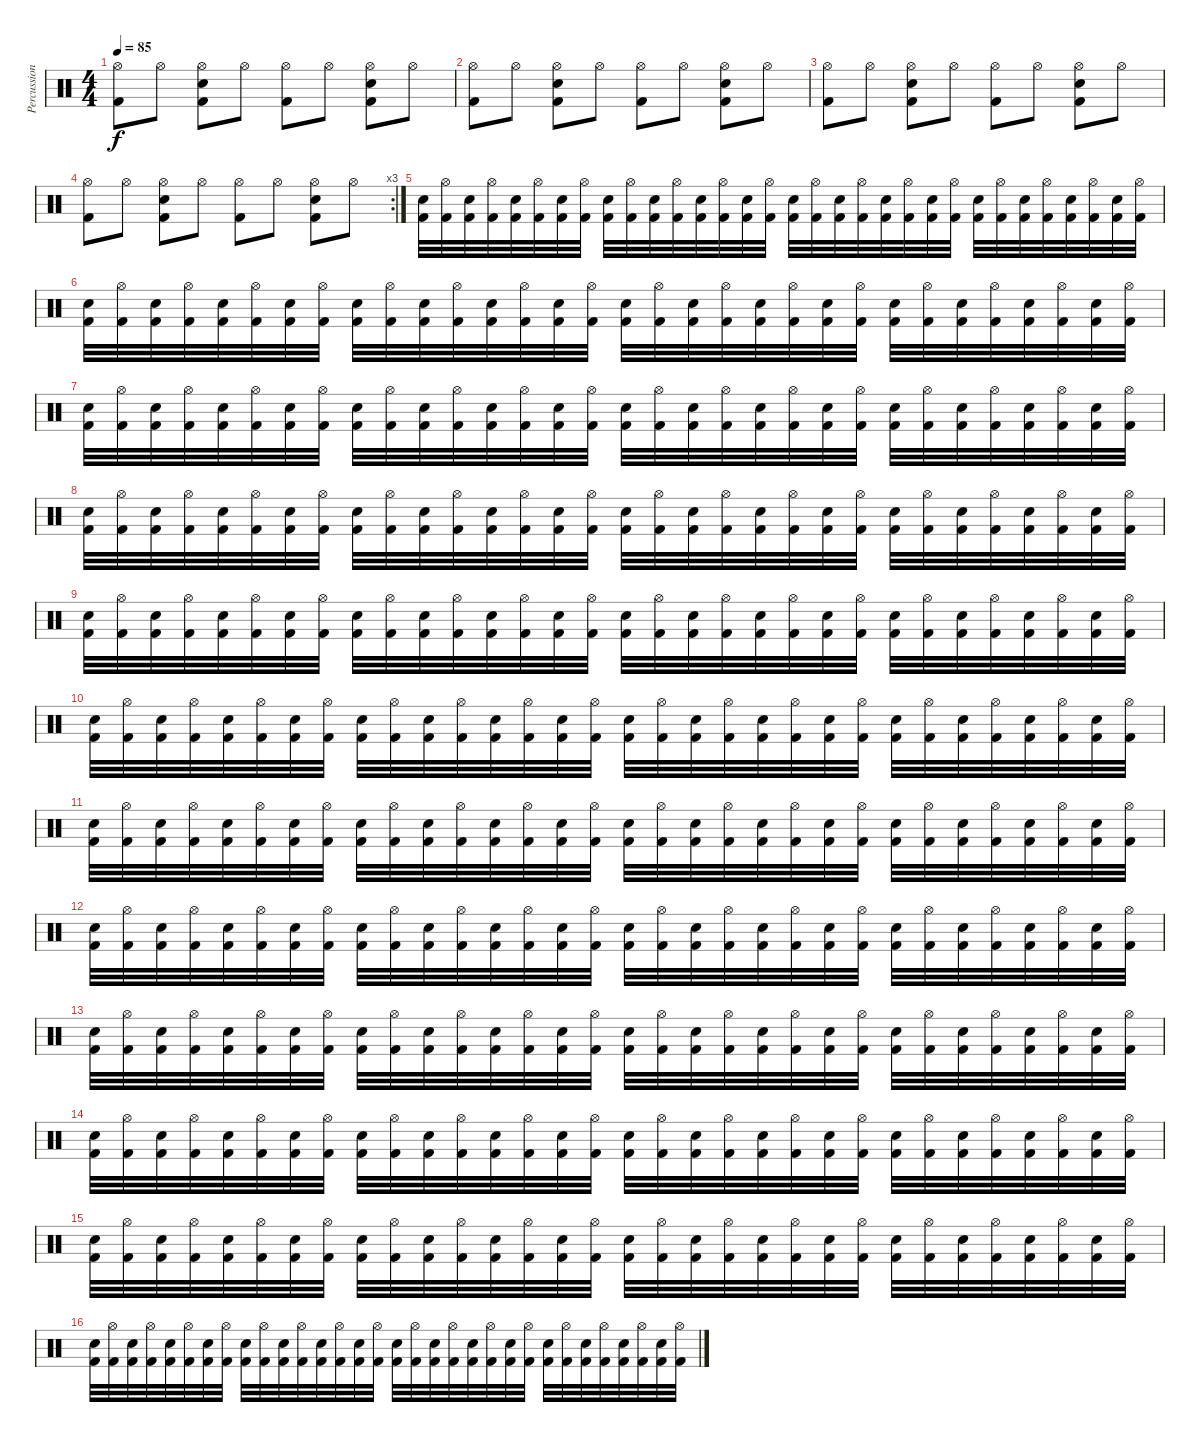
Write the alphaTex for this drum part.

\track ("Percussion" "Percussion") {instrument percussion}
\staff {score}
\articulation defaults
\ts (4 4)
\tempo 85
\clef neutral
\ks c
("Hi-Hat (open)" "Kick (hit) 2").8{dy f} "Hi-Hat (open)".8 ("Hi-Hat (open)" "Electric Snare (hit)" "Kick (hit) 2").8 "Hi-Hat (open)".8 ("Hi-Hat (open)" "Kick (hit) 2").8 "Hi-Hat (open)".8 ("Hi-Hat (open)" "Electric Snare (hit)" "Kick (hit) 2").8 "Hi-Hat (open)".8 |
("Hi-Hat (open)" "Kick (hit) 2").8 "Hi-Hat (open)".8 ("Hi-Hat (open)" "Electric Snare (hit)" "Kick (hit) 2").8 "Hi-Hat (open)".8 ("Hi-Hat (open)" "Kick (hit) 2").8 "Hi-Hat (open)".8 ("Hi-Hat (open)" "Electric Snare (hit)" "Kick (hit) 2").8 "Hi-Hat (open)".8 |
("Hi-Hat (open)" "Kick (hit) 2").8 "Hi-Hat (open)".8 ("Hi-Hat (open)" "Electric Snare (hit)" "Kick (hit) 2").8 "Hi-Hat (open)".8 ("Hi-Hat (open)" "Kick (hit) 2").8 "Hi-Hat (open)".8 ("Hi-Hat (open)" "Electric Snare (hit)" "Kick (hit) 2").8 "Hi-Hat (open)".8 |
\rc 3
("Hi-Hat (open)" "Kick (hit) 2").8 "Hi-Hat (open)".8 ("Hi-Hat (open)" "Electric Snare (hit)" "Kick (hit) 2").8 "Hi-Hat (open)".8 ("Hi-Hat (open)" "Kick (hit) 2").8 "Hi-Hat (open)".8 ("Hi-Hat (open)" "Electric Snare (hit)" "Kick (hit) 2").8 "Hi-Hat (open)".8 |
("Electric Snare (hit)" "Kick (hit) 2").32 ("Hi-Hat (open)" "Kick (hit) 2").32 ("Electric Snare (hit)" "Kick (hit) 2").32 ("Hi-Hat (open)" "Kick (hit) 2").32 ("Electric Snare (hit)" "Kick (hit) 2").32 ("Hi-Hat (open)" "Kick (hit) 2").32 ("Electric Snare (hit)" "Kick (hit) 2").32 ("Hi-Hat (open)" "Kick (hit) 2").32 ("Electric Snare (hit)" "Kick (hit) 2").32 ("Hi-Hat (open)" "Kick (hit) 2").32 ("Electric Snare (hit)" "Kick (hit) 2").32 ("Hi-Hat (open)" "Kick (hit) 2").32 ("Electric Snare (hit)" "Kick (hit) 2").32 ("Hi-Hat (open)" "Kick (hit) 2").32 ("Electric Snare (hit)" "Kick (hit) 2").32 ("Hi-Hat (open)" "Kick (hit) 2").32 ("Electric Snare (hit)" "Kick (hit) 2").32 ("Hi-Hat (open)" "Kick (hit) 2").32 ("Electric Snare (hit)" "Kick (hit) 2").32 ("Hi-Hat (open)" "Kick (hit) 2").32 ("Electric Snare (hit)" "Kick (hit) 2").32 ("Hi-Hat (open)" "Kick (hit) 2").32 ("Electric Snare (hit)" "Kick (hit) 2").32 ("Hi-Hat (open)" "Kick (hit) 2").32 ("Electric Snare (hit)" "Kick (hit) 2").32 ("Hi-Hat (open)" "Kick (hit) 2").32 ("Electric Snare (hit)" "Kick (hit) 2").32 ("Hi-Hat (open)" "Kick (hit) 2").32 ("Electric Snare (hit)" "Kick (hit) 2").32 ("Hi-Hat (open)" "Kick (hit) 2").32 ("Electric Snare (hit)" "Kick (hit) 2").32 ("Hi-Hat (open)" "Kick (hit) 2").32 |
("Electric Snare (hit)" "Kick (hit) 2").32 ("Hi-Hat (open)" "Kick (hit) 2").32 ("Electric Snare (hit)" "Kick (hit) 2").32 ("Hi-Hat (open)" "Kick (hit) 2").32 ("Electric Snare (hit)" "Kick (hit) 2").32 ("Hi-Hat (open)" "Kick (hit) 2").32 ("Electric Snare (hit)" "Kick (hit) 2").32 ("Hi-Hat (open)" "Kick (hit) 2").32 ("Electric Snare (hit)" "Kick (hit) 2").32 ("Hi-Hat (open)" "Kick (hit) 2").32 ("Electric Snare (hit)" "Kick (hit) 2").32 ("Hi-Hat (open)" "Kick (hit) 2").32 ("Electric Snare (hit)" "Kick (hit) 2").32 ("Hi-Hat (open)" "Kick (hit) 2").32 ("Electric Snare (hit)" "Kick (hit) 2").32 ("Hi-Hat (open)" "Kick (hit) 2").32 ("Electric Snare (hit)" "Kick (hit) 2").32 ("Hi-Hat (open)" "Kick (hit) 2").32 ("Electric Snare (hit)" "Kick (hit) 2").32 ("Hi-Hat (open)" "Kick (hit) 2").32 ("Electric Snare (hit)" "Kick (hit) 2").32 ("Hi-Hat (open)" "Kick (hit) 2").32 ("Electric Snare (hit)" "Kick (hit) 2").32 ("Hi-Hat (open)" "Kick (hit) 2").32 ("Electric Snare (hit)" "Kick (hit) 2").32 ("Hi-Hat (open)" "Kick (hit) 2").32 ("Electric Snare (hit)" "Kick (hit) 2").32 ("Hi-Hat (open)" "Kick (hit) 2").32 ("Electric Snare (hit)" "Kick (hit) 2").32 ("Hi-Hat (open)" "Kick (hit) 2").32 ("Electric Snare (hit)" "Kick (hit) 2").32 ("Hi-Hat (open)" "Kick (hit) 2").32 |
("Electric Snare (hit)" "Kick (hit) 2").32 ("Hi-Hat (open)" "Kick (hit) 2").32 ("Electric Snare (hit)" "Kick (hit) 2").32 ("Hi-Hat (open)" "Kick (hit) 2").32 ("Electric Snare (hit)" "Kick (hit) 2").32 ("Hi-Hat (open)" "Kick (hit) 2").32 ("Electric Snare (hit)" "Kick (hit) 2").32 ("Hi-Hat (open)" "Kick (hit) 2").32 ("Electric Snare (hit)" "Kick (hit) 2").32 ("Hi-Hat (open)" "Kick (hit) 2").32 ("Electric Snare (hit)" "Kick (hit) 2").32 ("Hi-Hat (open)" "Kick (hit) 2").32 ("Electric Snare (hit)" "Kick (hit) 2").32 ("Hi-Hat (open)" "Kick (hit) 2").32 ("Electric Snare (hit)" "Kick (hit) 2").32 ("Hi-Hat (open)" "Kick (hit) 2").32 ("Electric Snare (hit)" "Kick (hit) 2").32 ("Hi-Hat (open)" "Kick (hit) 2").32 ("Electric Snare (hit)" "Kick (hit) 2").32 ("Hi-Hat (open)" "Kick (hit) 2").32 ("Electric Snare (hit)" "Kick (hit) 2").32 ("Hi-Hat (open)" "Kick (hit) 2").32 ("Electric Snare (hit)" "Kick (hit) 2").32 ("Hi-Hat (open)" "Kick (hit) 2").32 ("Electric Snare (hit)" "Kick (hit) 2").32 ("Hi-Hat (open)" "Kick (hit) 2").32 ("Electric Snare (hit)" "Kick (hit) 2").32 ("Hi-Hat (open)" "Kick (hit) 2").32 ("Electric Snare (hit)" "Kick (hit) 2").32 ("Hi-Hat (open)" "Kick (hit) 2").32 ("Electric Snare (hit)" "Kick (hit) 2").32 ("Hi-Hat (open)" "Kick (hit) 2").32 |
("Electric Snare (hit)" "Kick (hit) 2").32 ("Hi-Hat (open)" "Kick (hit) 2").32 ("Electric Snare (hit)" "Kick (hit) 2").32 ("Hi-Hat (open)" "Kick (hit) 2").32 ("Electric Snare (hit)" "Kick (hit) 2").32 ("Hi-Hat (open)" "Kick (hit) 2").32 ("Electric Snare (hit)" "Kick (hit) 2").32 ("Hi-Hat (open)" "Kick (hit) 2").32 ("Electric Snare (hit)" "Kick (hit) 2").32 ("Hi-Hat (open)" "Kick (hit) 2").32 ("Electric Snare (hit)" "Kick (hit) 2").32 ("Hi-Hat (open)" "Kick (hit) 2").32 ("Electric Snare (hit)" "Kick (hit) 2").32 ("Hi-Hat (open)" "Kick (hit) 2").32 ("Electric Snare (hit)" "Kick (hit) 2").32 ("Hi-Hat (open)" "Kick (hit) 2").32 ("Electric Snare (hit)" "Kick (hit) 2").32 ("Hi-Hat (open)" "Kick (hit) 2").32 ("Electric Snare (hit)" "Kick (hit) 2").32 ("Hi-Hat (open)" "Kick (hit) 2").32 ("Electric Snare (hit)" "Kick (hit) 2").32 ("Hi-Hat (open)" "Kick (hit) 2").32 ("Electric Snare (hit)" "Kick (hit) 2").32 ("Hi-Hat (open)" "Kick (hit) 2").32 ("Electric Snare (hit)" "Kick (hit) 2").32 ("Hi-Hat (open)" "Kick (hit) 2").32 ("Electric Snare (hit)" "Kick (hit) 2").32 ("Hi-Hat (open)" "Kick (hit) 2").32 ("Electric Snare (hit)" "Kick (hit) 2").32 ("Hi-Hat (open)" "Kick (hit) 2").32 ("Electric Snare (hit)" "Kick (hit) 2").32 ("Hi-Hat (open)" "Kick (hit) 2").32 |
("Electric Snare (hit)" "Kick (hit) 2").32 ("Hi-Hat (open)" "Kick (hit) 2").32 ("Electric Snare (hit)" "Kick (hit) 2").32 ("Hi-Hat (open)" "Kick (hit) 2").32 ("Electric Snare (hit)" "Kick (hit) 2").32 ("Hi-Hat (open)" "Kick (hit) 2").32 ("Electric Snare (hit)" "Kick (hit) 2").32 ("Hi-Hat (open)" "Kick (hit) 2").32 ("Electric Snare (hit)" "Kick (hit) 2").32 ("Hi-Hat (open)" "Kick (hit) 2").32 ("Electric Snare (hit)" "Kick (hit) 2").32 ("Hi-Hat (open)" "Kick (hit) 2").32 ("Electric Snare (hit)" "Kick (hit) 2").32 ("Hi-Hat (open)" "Kick (hit) 2").32 ("Electric Snare (hit)" "Kick (hit) 2").32 ("Hi-Hat (open)" "Kick (hit) 2").32 ("Electric Snare (hit)" "Kick (hit) 2").32 ("Hi-Hat (open)" "Kick (hit) 2").32 ("Electric Snare (hit)" "Kick (hit) 2").32 ("Hi-Hat (open)" "Kick (hit) 2").32 ("Electric Snare (hit)" "Kick (hit) 2").32 ("Hi-Hat (open)" "Kick (hit) 2").32 ("Electric Snare (hit)" "Kick (hit) 2").32 ("Hi-Hat (open)" "Kick (hit) 2").32 ("Electric Snare (hit)" "Kick (hit) 2").32 ("Hi-Hat (open)" "Kick (hit) 2").32 ("Electric Snare (hit)" "Kick (hit) 2").32 ("Hi-Hat (open)" "Kick (hit) 2").32 ("Electric Snare (hit)" "Kick (hit) 2").32 ("Hi-Hat (open)" "Kick (hit) 2").32 ("Electric Snare (hit)" "Kick (hit) 2").32 ("Hi-Hat (open)" "Kick (hit) 2").32 |
("Electric Snare (hit)" "Kick (hit) 2").32 ("Hi-Hat (open)" "Kick (hit) 2").32 ("Electric Snare (hit)" "Kick (hit) 2").32 ("Hi-Hat (open)" "Kick (hit) 2").32 ("Electric Snare (hit)" "Kick (hit) 2").32 ("Hi-Hat (open)" "Kick (hit) 2").32 ("Electric Snare (hit)" "Kick (hit) 2").32 ("Hi-Hat (open)" "Kick (hit) 2").32 ("Electric Snare (hit)" "Kick (hit) 2").32 ("Hi-Hat (open)" "Kick (hit) 2").32 ("Electric Snare (hit)" "Kick (hit) 2").32 ("Hi-Hat (open)" "Kick (hit) 2").32 ("Electric Snare (hit)" "Kick (hit) 2").32 ("Hi-Hat (open)" "Kick (hit) 2").32 ("Electric Snare (hit)" "Kick (hit) 2").32 ("Hi-Hat (open)" "Kick (hit) 2").32 ("Electric Snare (hit)" "Kick (hit) 2").32 ("Hi-Hat (open)" "Kick (hit) 2").32 ("Electric Snare (hit)" "Kick (hit) 2").32 ("Hi-Hat (open)" "Kick (hit) 2").32 ("Electric Snare (hit)" "Kick (hit) 2").32 ("Hi-Hat (open)" "Kick (hit) 2").32 ("Electric Snare (hit)" "Kick (hit) 2").32 ("Hi-Hat (open)" "Kick (hit) 2").32 ("Electric Snare (hit)" "Kick (hit) 2").32 ("Hi-Hat (open)" "Kick (hit) 2").32 ("Electric Snare (hit)" "Kick (hit) 2").32 ("Hi-Hat (open)" "Kick (hit) 2").32 ("Electric Snare (hit)" "Kick (hit) 2").32 ("Hi-Hat (open)" "Kick (hit) 2").32 ("Electric Snare (hit)" "Kick (hit) 2").32 ("Hi-Hat (open)" "Kick (hit) 2").32 |
("Electric Snare (hit)" "Kick (hit) 2").32 ("Hi-Hat (open)" "Kick (hit) 2").32 ("Electric Snare (hit)" "Kick (hit) 2").32 ("Hi-Hat (open)" "Kick (hit) 2").32 ("Electric Snare (hit)" "Kick (hit) 2").32 ("Hi-Hat (open)" "Kick (hit) 2").32 ("Electric Snare (hit)" "Kick (hit) 2").32 ("Hi-Hat (open)" "Kick (hit) 2").32 ("Electric Snare (hit)" "Kick (hit) 2").32 ("Hi-Hat (open)" "Kick (hit) 2").32 ("Electric Snare (hit)" "Kick (hit) 2").32 ("Hi-Hat (open)" "Kick (hit) 2").32 ("Electric Snare (hit)" "Kick (hit) 2").32 ("Hi-Hat (open)" "Kick (hit) 2").32 ("Electric Snare (hit)" "Kick (hit) 2").32 ("Hi-Hat (open)" "Kick (hit) 2").32 ("Electric Snare (hit)" "Kick (hit) 2").32 ("Hi-Hat (open)" "Kick (hit) 2").32 ("Electric Snare (hit)" "Kick (hit) 2").32 ("Hi-Hat (open)" "Kick (hit) 2").32 ("Electric Snare (hit)" "Kick (hit) 2").32 ("Hi-Hat (open)" "Kick (hit) 2").32 ("Electric Snare (hit)" "Kick (hit) 2").32 ("Hi-Hat (open)" "Kick (hit) 2").32 ("Electric Snare (hit)" "Kick (hit) 2").32 ("Hi-Hat (open)" "Kick (hit) 2").32 ("Electric Snare (hit)" "Kick (hit) 2").32 ("Hi-Hat (open)" "Kick (hit) 2").32 ("Electric Snare (hit)" "Kick (hit) 2").32 ("Hi-Hat (open)" "Kick (hit) 2").32 ("Electric Snare (hit)" "Kick (hit) 2").32 ("Hi-Hat (open)" "Kick (hit) 2").32 |
("Electric Snare (hit)" "Kick (hit) 2").32 ("Hi-Hat (open)" "Kick (hit) 2").32 ("Electric Snare (hit)" "Kick (hit) 2").32 ("Hi-Hat (open)" "Kick (hit) 2").32 ("Electric Snare (hit)" "Kick (hit) 2").32 ("Hi-Hat (open)" "Kick (hit) 2").32 ("Electric Snare (hit)" "Kick (hit) 2").32 ("Hi-Hat (open)" "Kick (hit) 2").32 ("Electric Snare (hit)" "Kick (hit) 2").32 ("Hi-Hat (open)" "Kick (hit) 2").32 ("Electric Snare (hit)" "Kick (hit) 2").32 ("Hi-Hat (open)" "Kick (hit) 2").32 ("Electric Snare (hit)" "Kick (hit) 2").32 ("Hi-Hat (open)" "Kick (hit) 2").32 ("Electric Snare (hit)" "Kick (hit) 2").32 ("Hi-Hat (open)" "Kick (hit) 2").32 ("Electric Snare (hit)" "Kick (hit) 2").32 ("Hi-Hat (open)" "Kick (hit) 2").32 ("Electric Snare (hit)" "Kick (hit) 2").32 ("Hi-Hat (open)" "Kick (hit) 2").32 ("Electric Snare (hit)" "Kick (hit) 2").32 ("Hi-Hat (open)" "Kick (hit) 2").32 ("Electric Snare (hit)" "Kick (hit) 2").32 ("Hi-Hat (open)" "Kick (hit) 2").32 ("Electric Snare (hit)" "Kick (hit) 2").32 ("Hi-Hat (open)" "Kick (hit) 2").32 ("Electric Snare (hit)" "Kick (hit) 2").32 ("Hi-Hat (open)" "Kick (hit) 2").32 ("Electric Snare (hit)" "Kick (hit) 2").32 ("Hi-Hat (open)" "Kick (hit) 2").32 ("Electric Snare (hit)" "Kick (hit) 2").32 ("Hi-Hat (open)" "Kick (hit) 2").32 |
("Electric Snare (hit)" "Kick (hit) 2").32 ("Hi-Hat (open)" "Kick (hit) 2").32 ("Electric Snare (hit)" "Kick (hit) 2").32 ("Hi-Hat (open)" "Kick (hit) 2").32 ("Electric Snare (hit)" "Kick (hit) 2").32 ("Hi-Hat (open)" "Kick (hit) 2").32 ("Electric Snare (hit)" "Kick (hit) 2").32 ("Hi-Hat (open)" "Kick (hit) 2").32 ("Electric Snare (hit)" "Kick (hit) 2").32 ("Hi-Hat (open)" "Kick (hit) 2").32 ("Electric Snare (hit)" "Kick (hit) 2").32 ("Hi-Hat (open)" "Kick (hit) 2").32 ("Electric Snare (hit)" "Kick (hit) 2").32 ("Hi-Hat (open)" "Kick (hit) 2").32 ("Electric Snare (hit)" "Kick (hit) 2").32 ("Hi-Hat (open)" "Kick (hit) 2").32 ("Electric Snare (hit)" "Kick (hit) 2").32 ("Hi-Hat (open)" "Kick (hit) 2").32 ("Electric Snare (hit)" "Kick (hit) 2").32 ("Hi-Hat (open)" "Kick (hit) 2").32 ("Electric Snare (hit)" "Kick (hit) 2").32 ("Hi-Hat (open)" "Kick (hit) 2").32 ("Electric Snare (hit)" "Kick (hit) 2").32 ("Hi-Hat (open)" "Kick (hit) 2").32 ("Electric Snare (hit)" "Kick (hit) 2").32 ("Hi-Hat (open)" "Kick (hit) 2").32 ("Electric Snare (hit)" "Kick (hit) 2").32 ("Hi-Hat (open)" "Kick (hit) 2").32 ("Electric Snare (hit)" "Kick (hit) 2").32 ("Hi-Hat (open)" "Kick (hit) 2").32 ("Electric Snare (hit)" "Kick (hit) 2").32 ("Hi-Hat (open)" "Kick (hit) 2").32 |
("Electric Snare (hit)" "Kick (hit) 2").32 ("Hi-Hat (open)" "Kick (hit) 2").32 ("Electric Snare (hit)" "Kick (hit) 2").32 ("Hi-Hat (open)" "Kick (hit) 2").32 ("Electric Snare (hit)" "Kick (hit) 2").32 ("Hi-Hat (open)" "Kick (hit) 2").32 ("Electric Snare (hit)" "Kick (hit) 2").32 ("Hi-Hat (open)" "Kick (hit) 2").32 ("Electric Snare (hit)" "Kick (hit) 2").32 ("Hi-Hat (open)" "Kick (hit) 2").32 ("Electric Snare (hit)" "Kick (hit) 2").32 ("Hi-Hat (open)" "Kick (hit) 2").32 ("Electric Snare (hit)" "Kick (hit) 2").32 ("Hi-Hat (open)" "Kick (hit) 2").32 ("Electric Snare (hit)" "Kick (hit) 2").32 ("Hi-Hat (open)" "Kick (hit) 2").32 ("Electric Snare (hit)" "Kick (hit) 2").32 ("Hi-Hat (open)" "Kick (hit) 2").32 ("Electric Snare (hit)" "Kick (hit) 2").32 ("Hi-Hat (open)" "Kick (hit) 2").32 ("Electric Snare (hit)" "Kick (hit) 2").32 ("Hi-Hat (open)" "Kick (hit) 2").32 ("Electric Snare (hit)" "Kick (hit) 2").32 ("Hi-Hat (open)" "Kick (hit) 2").32 ("Electric Snare (hit)" "Kick (hit) 2").32 ("Hi-Hat (open)" "Kick (hit) 2").32 ("Electric Snare (hit)" "Kick (hit) 2").32 ("Hi-Hat (open)" "Kick (hit) 2").32 ("Electric Snare (hit)" "Kick (hit) 2").32 ("Hi-Hat (open)" "Kick (hit) 2").32 ("Electric Snare (hit)" "Kick (hit) 2").32 ("Hi-Hat (open)" "Kick (hit) 2").32 |
("Electric Snare (hit)" "Kick (hit) 2").32 ("Hi-Hat (open)" "Kick (hit) 2").32 ("Electric Snare (hit)" "Kick (hit) 2").32 ("Hi-Hat (open)" "Kick (hit) 2").32 ("Electric Snare (hit)" "Kick (hit) 2").32 ("Hi-Hat (open)" "Kick (hit) 2").32 ("Electric Snare (hit)" "Kick (hit) 2").32 ("Hi-Hat (open)" "Kick (hit) 2").32 ("Electric Snare (hit)" "Kick (hit) 2").32 ("Hi-Hat (open)" "Kick (hit) 2").32 ("Electric Snare (hit)" "Kick (hit) 2").32 ("Hi-Hat (open)" "Kick (hit) 2").32 ("Electric Snare (hit)" "Kick (hit) 2").32 ("Hi-Hat (open)" "Kick (hit) 2").32 ("Electric Snare (hit)" "Kick (hit) 2").32 ("Hi-Hat (open)" "Kick (hit) 2").32 ("Electric Snare (hit)" "Kick (hit) 2").32 ("Hi-Hat (open)" "Kick (hit) 2").32 ("Electric Snare (hit)" "Kick (hit) 2").32 ("Hi-Hat (open)" "Kick (hit) 2").32 ("Electric Snare (hit)" "Kick (hit) 2").32 ("Hi-Hat (open)" "Kick (hit) 2").32 ("Electric Snare (hit)" "Kick (hit) 2").32 ("Hi-Hat (open)" "Kick (hit) 2").32 ("Electric Snare (hit)" "Kick (hit) 2").32 ("Hi-Hat (open)" "Kick (hit) 2").32 ("Electric Snare (hit)" "Kick (hit) 2").32 ("Hi-Hat (open)" "Kick (hit) 2").32 ("Electric Snare (hit)" "Kick (hit) 2").32 ("Hi-Hat (open)" "Kick (hit) 2").32 ("Electric Snare (hit)" "Kick (hit) 2").32 ("Hi-Hat (open)" "Kick (hit) 2").32 |
("Electric Snare (hit)" "Kick (hit) 2").32 ("Hi-Hat (open)" "Kick (hit) 2").32 ("Electric Snare (hit)" "Kick (hit) 2").32 ("Hi-Hat (open)" "Kick (hit) 2").32 ("Electric Snare (hit)" "Kick (hit) 2").32 ("Hi-Hat (open)" "Kick (hit) 2").32 ("Electric Snare (hit)" "Kick (hit) 2").32 ("Hi-Hat (open)" "Kick (hit) 2").32 ("Electric Snare (hit)" "Kick (hit) 2").32 ("Hi-Hat (open)" "Kick (hit) 2").32 ("Electric Snare (hit)" "Kick (hit) 2").32 ("Hi-Hat (open)" "Kick (hit) 2").32 ("Electric Snare (hit)" "Kick (hit) 2").32 ("Hi-Hat (open)" "Kick (hit) 2").32 ("Electric Snare (hit)" "Kick (hit) 2").32 ("Hi-Hat (open)" "Kick (hit) 2").32 ("Electric Snare (hit)" "Kick (hit) 2").32 ("Hi-Hat (open)" "Kick (hit) 2").32 ("Electric Snare (hit)" "Kick (hit) 2").32 ("Hi-Hat (open)" "Kick (hit) 2").32 ("Electric Snare (hit)" "Kick (hit) 2").32 ("Hi-Hat (open)" "Kick (hit) 2").32 ("Electric Snare (hit)" "Kick (hit) 2").32 ("Hi-Hat (open)" "Kick (hit) 2").32 ("Electric Snare (hit)" "Kick (hit) 2").32 ("Hi-Hat (open)" "Kick (hit) 2").32 ("Electric Snare (hit)" "Kick (hit) 2").32 ("Hi-Hat (open)" "Kick (hit) 2").32 ("Electric Snare (hit)" "Kick (hit) 2").32 ("Hi-Hat (open)" "Kick (hit) 2").32 ("Electric Snare (hit)" "Kick (hit) 2").32 ("Hi-Hat (open)" "Kick (hit) 2").32
